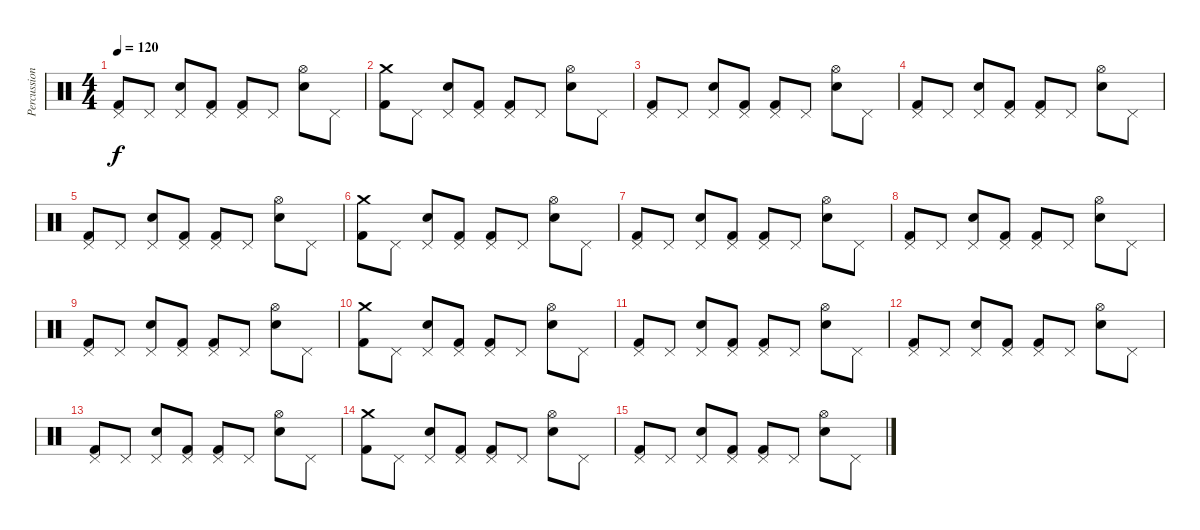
\track ("Percussions" "Percussion") {instrument percussion}
\staff {score}
\articulation defaults
\ts (4 4)
\tempo 120
\clef neutral
\ks c
("Pedal Hi-Hat (hit)" "Kick (hit) 2").8{dy f} "Pedal Hi-Hat (hit)".8 ("Pedal Hi-Hat (hit)" "Snare (hit) 2").8 ("Pedal Hi-Hat (hit)" "Kick (hit) 2").8 ("Pedal Hi-Hat (hit)" "Kick (hit) 2").8 "Pedal Hi-Hat (hit)".8 ("Hi-Hat (open)" "Snare (hit) 2").8 "Pedal Hi-Hat (hit)".8 |
("Crash medium (hit)" "Kick (hit) 2").8 "Pedal Hi-Hat (hit)".8 ("Pedal Hi-Hat (hit)" "Snare (hit) 2").8 ("Pedal Hi-Hat (hit)" "Kick (hit) 2").8 ("Pedal Hi-Hat (hit)" "Kick (hit) 2").8 "Pedal Hi-Hat (hit)".8 ("Hi-Hat (open)" "Snare (hit) 2").8 "Pedal Hi-Hat (hit)".8 |
("Pedal Hi-Hat (hit)" "Kick (hit) 2").8 "Pedal Hi-Hat (hit)".8 ("Pedal Hi-Hat (hit)" "Snare (hit) 2").8 ("Pedal Hi-Hat (hit)" "Kick (hit) 2").8 ("Pedal Hi-Hat (hit)" "Kick (hit) 2").8 "Pedal Hi-Hat (hit)".8 ("Hi-Hat (open)" "Snare (hit) 2").8 "Pedal Hi-Hat (hit)".8 |
("Pedal Hi-Hat (hit)" "Kick (hit) 2").8 "Pedal Hi-Hat (hit)".8 ("Pedal Hi-Hat (hit)" "Snare (hit) 2").8 ("Pedal Hi-Hat (hit)" "Kick (hit) 2").8 ("Pedal Hi-Hat (hit)" "Kick (hit) 2").8 "Pedal Hi-Hat (hit)".8 ("Hi-Hat (open)" "Snare (hit) 2").8 "Pedal Hi-Hat (hit)".8 |
("Pedal Hi-Hat (hit)" "Kick (hit) 2").8 "Pedal Hi-Hat (hit)".8 ("Pedal Hi-Hat (hit)" "Snare (hit) 2").8 ("Pedal Hi-Hat (hit)" "Kick (hit) 2").8 ("Pedal Hi-Hat (hit)" "Kick (hit) 2").8 "Pedal Hi-Hat (hit)".8 ("Hi-Hat (open)" "Snare (hit) 2").8 "Pedal Hi-Hat (hit)".8 |
("Crash medium (hit)" "Kick (hit) 2").8 "Pedal Hi-Hat (hit)".8 ("Pedal Hi-Hat (hit)" "Snare (hit) 2").8 ("Pedal Hi-Hat (hit)" "Kick (hit) 2").8 ("Pedal Hi-Hat (hit)" "Kick (hit) 2").8 "Pedal Hi-Hat (hit)".8 ("Hi-Hat (open)" "Snare (hit) 2").8 "Pedal Hi-Hat (hit)".8 |
("Pedal Hi-Hat (hit)" "Kick (hit) 2").8 "Pedal Hi-Hat (hit)".8 ("Pedal Hi-Hat (hit)" "Snare (hit) 2").8 ("Pedal Hi-Hat (hit)" "Kick (hit) 2").8 ("Pedal Hi-Hat (hit)" "Kick (hit) 2").8 "Pedal Hi-Hat (hit)".8 ("Hi-Hat (open)" "Snare (hit) 2").8 "Pedal Hi-Hat (hit)".8 |
("Pedal Hi-Hat (hit)" "Kick (hit) 2").8 "Pedal Hi-Hat (hit)".8 ("Pedal Hi-Hat (hit)" "Snare (hit) 2").8 ("Pedal Hi-Hat (hit)" "Kick (hit) 2").8 ("Pedal Hi-Hat (hit)" "Kick (hit) 2").8 "Pedal Hi-Hat (hit)".8 ("Hi-Hat (open)" "Snare (hit) 2").8 "Pedal Hi-Hat (hit)".8 |
("Pedal Hi-Hat (hit)" "Kick (hit) 2").8 "Pedal Hi-Hat (hit)".8 ("Pedal Hi-Hat (hit)" "Snare (hit) 2").8 ("Pedal Hi-Hat (hit)" "Kick (hit) 2").8 ("Pedal Hi-Hat (hit)" "Kick (hit) 2").8 "Pedal Hi-Hat (hit)".8 ("Hi-Hat (open)" "Snare (hit) 2").8 "Pedal Hi-Hat (hit)".8 |
("Crash medium (hit)" "Kick (hit) 2").8 "Pedal Hi-Hat (hit)".8 ("Pedal Hi-Hat (hit)" "Snare (hit) 2").8 ("Pedal Hi-Hat (hit)" "Kick (hit) 2").8 ("Pedal Hi-Hat (hit)" "Kick (hit) 2").8 "Pedal Hi-Hat (hit)".8 ("Hi-Hat (open)" "Snare (hit) 2").8 "Pedal Hi-Hat (hit)".8 |
("Pedal Hi-Hat (hit)" "Kick (hit) 2").8 "Pedal Hi-Hat (hit)".8 ("Pedal Hi-Hat (hit)" "Snare (hit) 2").8 ("Pedal Hi-Hat (hit)" "Kick (hit) 2").8 ("Pedal Hi-Hat (hit)" "Kick (hit) 2").8 "Pedal Hi-Hat (hit)".8 ("Hi-Hat (open)" "Snare (hit) 2").8 "Pedal Hi-Hat (hit)".8 |
("Pedal Hi-Hat (hit)" "Kick (hit) 2").8 "Pedal Hi-Hat (hit)".8 ("Pedal Hi-Hat (hit)" "Snare (hit) 2").8 ("Pedal Hi-Hat (hit)" "Kick (hit) 2").8 ("Pedal Hi-Hat (hit)" "Kick (hit) 2").8 "Pedal Hi-Hat (hit)".8 ("Hi-Hat (open)" "Snare (hit) 2").8 "Pedal Hi-Hat (hit)".8 |
("Pedal Hi-Hat (hit)" "Kick (hit) 2").8 "Pedal Hi-Hat (hit)".8 ("Pedal Hi-Hat (hit)" "Snare (hit) 2").8 ("Pedal Hi-Hat (hit)" "Kick (hit) 2").8 ("Pedal Hi-Hat (hit)" "Kick (hit) 2").8 "Pedal Hi-Hat (hit)".8 ("Hi-Hat (open)" "Snare (hit) 2").8 "Pedal Hi-Hat (hit)".8 |
("Crash medium (hit)" "Kick (hit) 2").8 "Pedal Hi-Hat (hit)".8 ("Pedal Hi-Hat (hit)" "Snare (hit) 2").8 ("Pedal Hi-Hat (hit)" "Kick (hit) 2").8 ("Pedal Hi-Hat (hit)" "Kick (hit) 2").8 "Pedal Hi-Hat (hit)".8 ("Hi-Hat (open)" "Snare (hit) 2").8 "Pedal Hi-Hat (hit)".8 |
("Pedal Hi-Hat (hit)" "Kick (hit) 2").8 "Pedal Hi-Hat (hit)".8 ("Pedal Hi-Hat (hit)" "Snare (hit) 2").8 ("Pedal Hi-Hat (hit)" "Kick (hit) 2").8 ("Pedal Hi-Hat (hit)" "Kick (hit) 2").8 "Pedal Hi-Hat (hit)".8 ("Hi-Hat (open)" "Snare (hit) 2").8 "Pedal Hi-Hat (hit)".8
